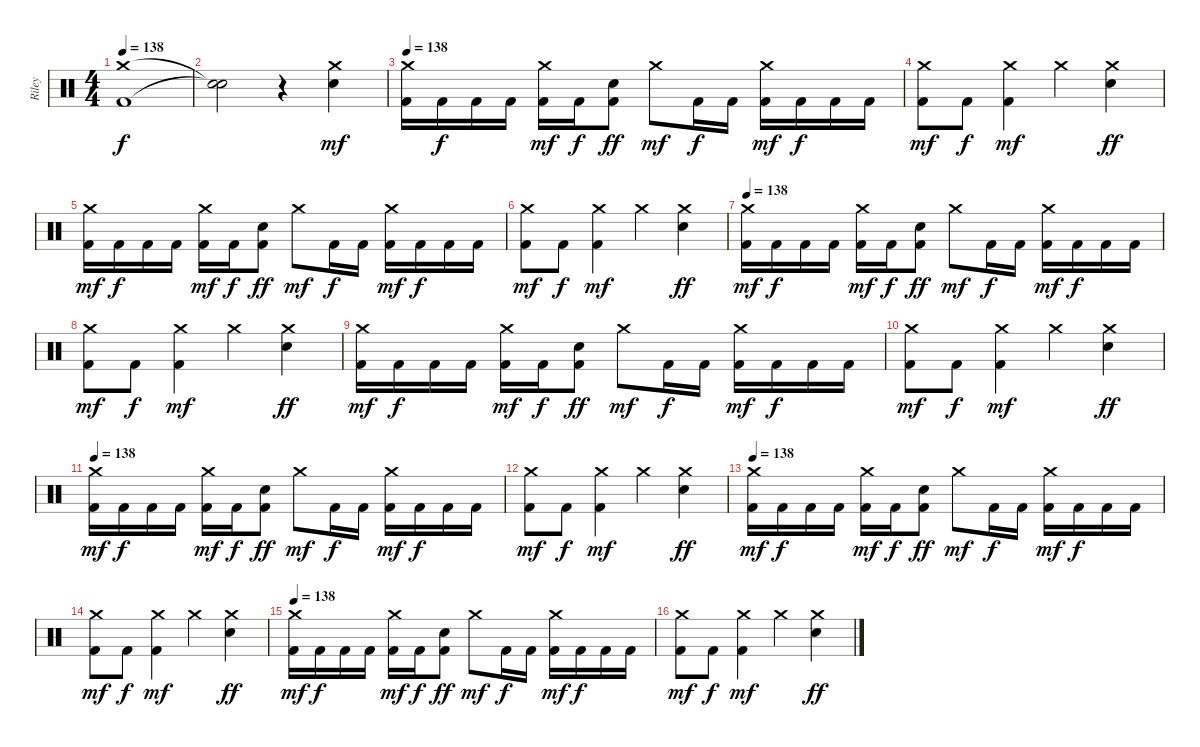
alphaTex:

\track ("Riley" "Riley") {instrument percussion}
\staff {score}
\articulation defaults
\ts (4 4)
\tempo 138
\clef neutral
\ks c
("Crash medium (hit)" "Kick (hit) 2").1{dy f} |
("Snare (hit)"{t} "Snare (hit)"{t}).2 r.4 ("Crash medium (hit)" "Electric Snare (hit)").4{dy mf} |
\tempo 138
("Crash medium (hit)" "Kick (hit) 2").16 "Kick (hit) 2".16{dy f} "Kick (hit) 2".16 "Kick (hit) 2".16 ("Crash medium (hit)" "Kick (hit) 2").16{dy mf} "Kick (hit) 2".16{dy f} ("Electric Snare (hit)" "Kick (hit) 2").8{dy ff} "Crash medium (hit)".8{dy mf} "Kick (hit) 2".16{dy f} "Kick (hit) 2".16 ("Crash medium (hit)" "Kick (hit) 2").16{dy mf} "Kick (hit) 2".16{dy f} "Kick (hit) 2".16 "Kick (hit) 2".16 |
("Crash medium (hit)" "Kick (hit) 2").8{dy mf} "Kick (hit) 2".8{dy f} ("Crash medium (hit)" "Kick (hit) 2").4{dy mf} "Crash medium (hit)".4 ("Crash medium (hit)" "Electric Snare (hit)").4{dy ff} |
("Crash medium (hit)" "Kick (hit) 2").16{dy mf} "Kick (hit) 2".16{dy f} "Kick (hit) 2".16 "Kick (hit) 2".16 ("Crash medium (hit)" "Kick (hit) 2").16{dy mf} "Kick (hit) 2".16{dy f} ("Electric Snare (hit)" "Kick (hit) 2").8{dy ff} "Crash medium (hit)".8{dy mf} "Kick (hit) 2".16{dy f} "Kick (hit) 2".16 ("Crash medium (hit)" "Kick (hit) 2").16{dy mf} "Kick (hit) 2".16{dy f} "Kick (hit) 2".16 "Kick (hit) 2".16 |
("Crash medium (hit)" "Kick (hit) 2").8{dy mf} "Kick (hit) 2".8{dy f} ("Crash medium (hit)" "Kick (hit) 2").4{dy mf} "Crash medium (hit)".4 ("Crash medium (hit)" "Electric Snare (hit)").4{dy ff} |
\tempo 138
("Crash medium (hit)" "Kick (hit) 2").16{dy mf} "Kick (hit) 2".16{dy f} "Kick (hit) 2".16 "Kick (hit) 2".16 ("Crash medium (hit)" "Kick (hit) 2").16{dy mf} "Kick (hit) 2".16{dy f} ("Electric Snare (hit)" "Kick (hit) 2").8{dy ff} "Crash medium (hit)".8{dy mf} "Kick (hit) 2".16{dy f} "Kick (hit) 2".16 ("Crash medium (hit)" "Kick (hit) 2").16{dy mf} "Kick (hit) 2".16{dy f} "Kick (hit) 2".16 "Kick (hit) 2".16 |
("Crash medium (hit)" "Kick (hit) 2").8{dy mf} "Kick (hit) 2".8{dy f} ("Crash medium (hit)" "Kick (hit) 2").4{dy mf} "Crash medium (hit)".4 ("Crash medium (hit)" "Electric Snare (hit)").4{dy ff} |
("Crash medium (hit)" "Kick (hit) 2").16{dy mf} "Kick (hit) 2".16{dy f} "Kick (hit) 2".16 "Kick (hit) 2".16 ("Crash medium (hit)" "Kick (hit) 2").16{dy mf} "Kick (hit) 2".16{dy f} ("Electric Snare (hit)" "Kick (hit) 2").8{dy ff} "Crash medium (hit)".8{dy mf} "Kick (hit) 2".16{dy f} "Kick (hit) 2".16 ("Crash medium (hit)" "Kick (hit) 2").16{dy mf} "Kick (hit) 2".16{dy f} "Kick (hit) 2".16 "Kick (hit) 2".16 |
("Crash medium (hit)" "Kick (hit) 2").8{dy mf} "Kick (hit) 2".8{dy f} ("Crash medium (hit)" "Kick (hit) 2").4{dy mf} "Crash medium (hit)".4 ("Crash medium (hit)" "Electric Snare (hit)").4{dy ff} |
\tempo 138
("Crash medium (hit)" "Kick (hit) 2").16{dy mf} "Kick (hit) 2".16{dy f} "Kick (hit) 2".16 "Kick (hit) 2".16 ("Crash medium (hit)" "Kick (hit) 2").16{dy mf} "Kick (hit) 2".16{dy f} ("Electric Snare (hit)" "Kick (hit) 2").8{dy ff} "Crash medium (hit)".8{dy mf} "Kick (hit) 2".16{dy f} "Kick (hit) 2".16 ("Crash medium (hit)" "Kick (hit) 2").16{dy mf} "Kick (hit) 2".16{dy f} "Kick (hit) 2".16 "Kick (hit) 2".16 |
("Crash medium (hit)" "Kick (hit) 2").8{dy mf} "Kick (hit) 2".8{dy f} ("Crash medium (hit)" "Kick (hit) 2").4{dy mf} "Crash medium (hit)".4 ("Crash medium (hit)" "Electric Snare (hit)").4{dy ff} |
\tempo 138
("Crash medium (hit)" "Kick (hit) 2").16{dy mf} "Kick (hit) 2".16{dy f} "Kick (hit) 2".16 "Kick (hit) 2".16 ("Crash medium (hit)" "Kick (hit) 2").16{dy mf} "Kick (hit) 2".16{dy f} ("Electric Snare (hit)" "Kick (hit) 2").8{dy ff} "Crash medium (hit)".8{dy mf} "Kick (hit) 2".16{dy f} "Kick (hit) 2".16 ("Crash medium (hit)" "Kick (hit) 2").16{dy mf} "Kick (hit) 2".16{dy f} "Kick (hit) 2".16 "Kick (hit) 2".16 |
("Crash medium (hit)" "Kick (hit) 2").8{dy mf} "Kick (hit) 2".8{dy f} ("Crash medium (hit)" "Kick (hit) 2").4{dy mf} "Crash medium (hit)".4 ("Crash medium (hit)" "Electric Snare (hit)").4{dy ff} |
\tempo 138
("Crash medium (hit)" "Kick (hit) 2").16{dy mf} "Kick (hit) 2".16{dy f} "Kick (hit) 2".16 "Kick (hit) 2".16 ("Crash medium (hit)" "Kick (hit) 2").16{dy mf} "Kick (hit) 2".16{dy f} ("Electric Snare (hit)" "Kick (hit) 2").8{dy ff} "Crash medium (hit)".8{dy mf} "Kick (hit) 2".16{dy f} "Kick (hit) 2".16 ("Crash medium (hit)" "Kick (hit) 2").16{dy mf} "Kick (hit) 2".16{dy f} "Kick (hit) 2".16 "Kick (hit) 2".16 |
("Crash medium (hit)" "Kick (hit) 2").8{dy mf} "Kick (hit) 2".8{dy f} ("Crash medium (hit)" "Kick (hit) 2").4{dy mf} "Crash medium (hit)".4 ("Crash medium (hit)" "Electric Snare (hit)").4{dy ff}
